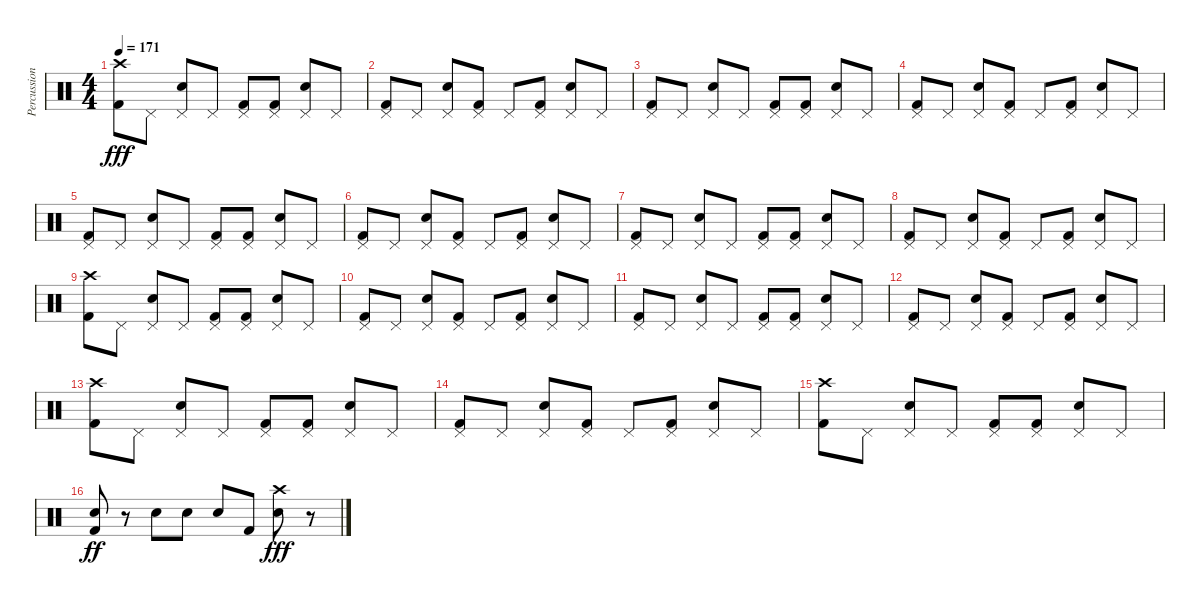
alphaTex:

\track ("Percussion" "Percussion") {instrument percussion}
\staff {score}
\articulation defaults
\ts (4 4)
\tempo 171
\clef neutral
\ks c
("Kick (hit) 2" "Crash high (hit)").8{dy fff} "Pedal Hi-Hat (hit)".8 ("Snare (hit) 2" "Pedal Hi-Hat (hit)").8 "Pedal Hi-Hat (hit)".8 ("Kick (hit) 2" "Pedal Hi-Hat (hit)").8 ("Kick (hit) 2" "Pedal Hi-Hat (hit)").8 ("Snare (hit) 2" "Pedal Hi-Hat (hit)").8 "Pedal Hi-Hat (hit)".8 |
("Kick (hit) 2" "Pedal Hi-Hat (hit)").8 "Pedal Hi-Hat (hit)".8 ("Snare (hit) 2" "Pedal Hi-Hat (hit)").8 ("Kick (hit) 2" "Pedal Hi-Hat (hit)").8 "Pedal Hi-Hat (hit)".8 ("Kick (hit) 2" "Pedal Hi-Hat (hit)").8 ("Snare (hit) 2" "Pedal Hi-Hat (hit)").8 "Pedal Hi-Hat (hit)".8 |
("Kick (hit) 2" "Pedal Hi-Hat (hit)").8 "Pedal Hi-Hat (hit)".8 ("Snare (hit) 2" "Pedal Hi-Hat (hit)").8 "Pedal Hi-Hat (hit)".8 ("Kick (hit) 2" "Pedal Hi-Hat (hit)").8 ("Kick (hit) 2" "Pedal Hi-Hat (hit)").8 ("Snare (hit) 2" "Pedal Hi-Hat (hit)").8 "Pedal Hi-Hat (hit)".8 |
("Kick (hit) 2" "Pedal Hi-Hat (hit)").8 "Pedal Hi-Hat (hit)".8 ("Snare (hit) 2" "Pedal Hi-Hat (hit)").8 ("Kick (hit) 2" "Pedal Hi-Hat (hit)").8 "Pedal Hi-Hat (hit)".8 ("Kick (hit) 2" "Pedal Hi-Hat (hit)").8 ("Snare (hit) 2" "Pedal Hi-Hat (hit)").8 "Pedal Hi-Hat (hit)".8 |
("Kick (hit) 2" "Pedal Hi-Hat (hit)").8 "Pedal Hi-Hat (hit)".8 ("Snare (hit) 2" "Pedal Hi-Hat (hit)").8 "Pedal Hi-Hat (hit)".8 ("Kick (hit) 2" "Pedal Hi-Hat (hit)").8 ("Kick (hit) 2" "Pedal Hi-Hat (hit)").8 ("Snare (hit) 2" "Pedal Hi-Hat (hit)").8 "Pedal Hi-Hat (hit)".8 |
("Kick (hit) 2" "Pedal Hi-Hat (hit)").8 "Pedal Hi-Hat (hit)".8 ("Snare (hit) 2" "Pedal Hi-Hat (hit)").8 ("Kick (hit) 2" "Pedal Hi-Hat (hit)").8 "Pedal Hi-Hat (hit)".8 ("Kick (hit) 2" "Pedal Hi-Hat (hit)").8 ("Snare (hit) 2" "Pedal Hi-Hat (hit)").8 "Pedal Hi-Hat (hit)".8 |
("Kick (hit) 2" "Pedal Hi-Hat (hit)").8 "Pedal Hi-Hat (hit)".8 ("Snare (hit) 2" "Pedal Hi-Hat (hit)").8 "Pedal Hi-Hat (hit)".8 ("Kick (hit) 2" "Pedal Hi-Hat (hit)").8 ("Kick (hit) 2" "Pedal Hi-Hat (hit)").8 ("Snare (hit) 2" "Pedal Hi-Hat (hit)").8 "Pedal Hi-Hat (hit)".8 |
("Kick (hit) 2" "Pedal Hi-Hat (hit)").8 "Pedal Hi-Hat (hit)".8 ("Snare (hit) 2" "Pedal Hi-Hat (hit)").8 ("Kick (hit) 2" "Pedal Hi-Hat (hit)").8 "Pedal Hi-Hat (hit)".8 ("Kick (hit) 2" "Pedal Hi-Hat (hit)").8 ("Snare (hit) 2" "Pedal Hi-Hat (hit)").8 "Pedal Hi-Hat (hit)".8 |
("Kick (hit) 2" "Crash high (hit)").8 "Pedal Hi-Hat (hit)".8 ("Snare (hit) 2" "Pedal Hi-Hat (hit)").8 "Pedal Hi-Hat (hit)".8 ("Kick (hit) 2" "Pedal Hi-Hat (hit)").8 ("Kick (hit) 2" "Pedal Hi-Hat (hit)").8 ("Snare (hit) 2" "Pedal Hi-Hat (hit)").8 "Pedal Hi-Hat (hit)".8 |
("Kick (hit) 2" "Pedal Hi-Hat (hit)").8 "Pedal Hi-Hat (hit)".8 ("Snare (hit) 2" "Pedal Hi-Hat (hit)").8 ("Kick (hit) 2" "Pedal Hi-Hat (hit)").8 "Pedal Hi-Hat (hit)".8 ("Kick (hit) 2" "Pedal Hi-Hat (hit)").8 ("Snare (hit) 2" "Pedal Hi-Hat (hit)").8 "Pedal Hi-Hat (hit)".8 |
("Kick (hit) 2" "Pedal Hi-Hat (hit)").8 "Pedal Hi-Hat (hit)".8 ("Snare (hit) 2" "Pedal Hi-Hat (hit)").8 "Pedal Hi-Hat (hit)".8 ("Kick (hit) 2" "Pedal Hi-Hat (hit)").8 ("Kick (hit) 2" "Pedal Hi-Hat (hit)").8 ("Snare (hit) 2" "Pedal Hi-Hat (hit)").8 "Pedal Hi-Hat (hit)".8 |
("Kick (hit) 2" "Pedal Hi-Hat (hit)").8 "Pedal Hi-Hat (hit)".8 ("Snare (hit) 2" "Pedal Hi-Hat (hit)").8 ("Kick (hit) 2" "Pedal Hi-Hat (hit)").8 "Pedal Hi-Hat (hit)".8 ("Kick (hit) 2" "Pedal Hi-Hat (hit)").8 ("Snare (hit) 2" "Pedal Hi-Hat (hit)").8 "Pedal Hi-Hat (hit)".8 |
("Kick (hit) 2" "Crash high (hit)").8 "Pedal Hi-Hat (hit)".8 ("Snare (hit) 2" "Pedal Hi-Hat (hit)").8 "Pedal Hi-Hat (hit)".8 ("Kick (hit) 2" "Pedal Hi-Hat (hit)").8 ("Kick (hit) 2" "Pedal Hi-Hat (hit)").8 ("Snare (hit) 2" "Pedal Hi-Hat (hit)").8 "Pedal Hi-Hat (hit)".8 |
("Kick (hit) 2" "Pedal Hi-Hat (hit)").8 "Pedal Hi-Hat (hit)".8 ("Snare (hit) 2" "Pedal Hi-Hat (hit)").8 ("Kick (hit) 2" "Pedal Hi-Hat (hit)").8 "Pedal Hi-Hat (hit)".8 ("Kick (hit) 2" "Pedal Hi-Hat (hit)").8 ("Snare (hit) 2" "Pedal Hi-Hat (hit)").8 "Pedal Hi-Hat (hit)".8 |
("Kick (hit) 2" "Crash high (hit)").8 "Pedal Hi-Hat (hit)".8 ("Snare (hit) 2" "Pedal Hi-Hat (hit)").8 "Pedal Hi-Hat (hit)".8 ("Kick (hit) 2" "Pedal Hi-Hat (hit)").8 ("Kick (hit) 2" "Pedal Hi-Hat (hit)").8 ("Snare (hit) 2" "Pedal Hi-Hat (hit)").8 "Pedal Hi-Hat (hit)".8 |
("Kick (hit) 2" "Snare (hit) 2").8{dy ff} r.8 "Snare (hit) 2".8 "Snare (hit) 2".8 "Snare (hit) 2".8 "Kick (hit) 2".8 ("Snare (hit) 2" "Crash high (hit)").8{dy fff} r.8
